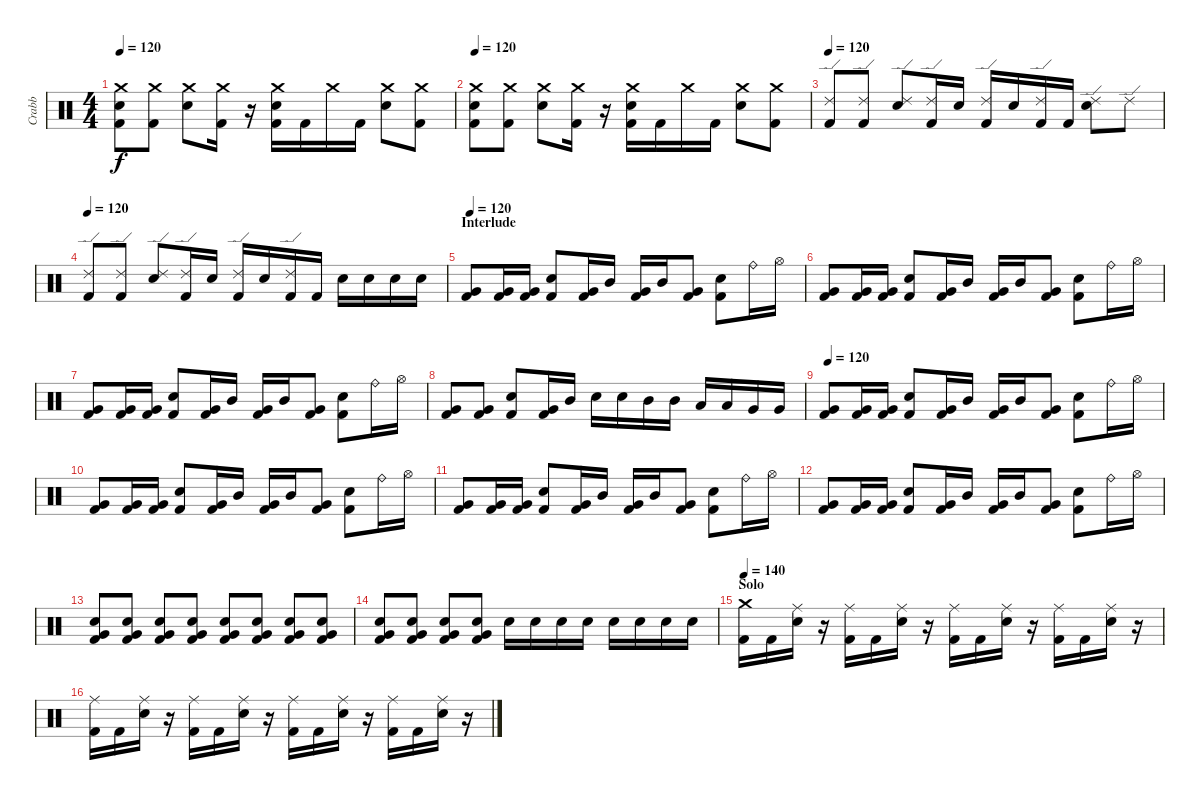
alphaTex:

\track ("Crabb" "Crabb") {instrument percussion}
\staff {score}
\articulation defaults
\ts (4 4)
\tempo 120
\clef neutral
\ks c
("Crash medium (hit)" "Kick (hit) 2" "Electric Snare (hit)").8{dy f} ("Crash medium (hit)" "Kick (hit) 2").8 ("Crash medium (hit)" "Electric Snare (hit)").8 ("Crash medium (hit)" "Kick (hit) 2").16 r.16 ("Crash medium (hit)" "Kick (hit) 2" "Electric Snare (hit)").16 "Kick (hit) 2".16 "Crash medium (hit)".16 "Kick (hit) 2".16 ("Crash medium (hit)" "Electric Snare (hit)").8 ("Crash medium (hit)" "Kick (hit) 2").8 |
\tempo 120
("Crash medium (hit)" "Kick (hit) 2" "Electric Snare (hit)").8 ("Crash medium (hit)" "Kick (hit) 2").8 ("Crash medium (hit)" "Electric Snare (hit)").8 ("Crash medium (hit)" "Kick (hit) 2").16 r.16 ("Crash medium (hit)" "Kick (hit) 2" "Electric Snare (hit)").16 "Kick (hit) 2".16 "Crash medium (hit)".16 "Kick (hit) 2".16 ("Crash medium (hit)" "Electric Snare (hit)").8 ("Crash medium (hit)" "Kick (hit) 2").8 |
\tempo 120
("Ride (edge) 2" "Kick (hit) 2").8 ("Ride (edge) 2" "Kick (hit) 2").8 ("Ride (edge) 2" "Electric Snare (hit)").8 ("Ride (edge) 2" "Kick (hit) 2").16 "Electric Snare (hit)".16 ("Ride (edge) 2" "Kick (hit) 2").16 "Electric Snare (hit)".16 ("Ride (edge) 2" "Kick (hit) 2").16 "Kick (hit) 2".16 ("Ride (edge) 2" "Electric Snare (hit)").8 "Ride (edge) 2".8 |
\tempo 120
("Ride (edge) 2" "Kick (hit) 2").8 ("Ride (edge) 2" "Kick (hit) 2").8 ("Ride (edge) 2" "Electric Snare (hit)").8 ("Ride (edge) 2" "Kick (hit) 2").16 "Electric Snare (hit)".16 ("Ride (edge) 2" "Kick (hit) 2").16 "Electric Snare (hit)".16 ("Ride (edge) 2" "Kick (hit) 2").16 "Kick (hit) 2".16 "Electric Snare (hit)".16 "Electric Snare (hit)".16 "Electric Snare (hit)".16 "Electric Snare (hit)".16 |
\section ("" "Interlude")
\tempo 120
("Very Low Tom (hit)" "Kick (hit) 2").8 ("Very Low Tom (hit)" "Kick (hit) 2").16 ("Very Low Tom (hit)" "Kick (hit) 2").16 ("Electric Snare (hit)" "Kick (hit) 2").8 ("Very Low Tom (hit)" "Kick (hit) 2").16 "Mid Tom (hit)".16 ("Very Low Tom (hit)" "Kick (hit) 2").16 "Mid Tom (hit)".16 ("Very Low Tom (hit)" "Kick (hit) 2").8 ("Electric Snare (hit)" "Kick (hit) 2").8 "Ride (bell)".16 "Hi-Hat (open)".16 |
("Very Low Tom (hit)" "Kick (hit) 2").8 ("Very Low Tom (hit)" "Kick (hit) 2").16 ("Very Low Tom (hit)" "Kick (hit) 2").16 ("Electric Snare (hit)" "Kick (hit) 2").8 ("Very Low Tom (hit)" "Kick (hit) 2").16 "Mid Tom (hit)".16 ("Very Low Tom (hit)" "Kick (hit) 2").16 "Mid Tom (hit)".16 ("Very Low Tom (hit)" "Kick (hit) 2").8 ("Electric Snare (hit)" "Kick (hit) 2").8 "Ride (bell)".16 "Hi-Hat (open)".16 |
("Very Low Tom (hit)" "Kick (hit) 2").8 ("Very Low Tom (hit)" "Kick (hit) 2").16 ("Very Low Tom (hit)" "Kick (hit) 2").16 ("Electric Snare (hit)" "Kick (hit) 2").8 ("Very Low Tom (hit)" "Kick (hit) 2").16 "Mid Tom (hit)".16 ("Very Low Tom (hit)" "Kick (hit) 2").16 "Mid Tom (hit)".16 ("Very Low Tom (hit)" "Kick (hit) 2").8 ("Electric Snare (hit)" "Kick (hit) 2").8 "Ride (bell)".16 "Hi-Hat (open)".16 |
("Very Low Tom (hit)" "Kick (hit) 2").8 ("Very Low Tom (hit)" "Kick (hit) 2").8 ("Electric Snare (hit)" "Kick (hit) 2").8 ("Very Low Tom (hit)" "Kick (hit) 2").16 "Mid Tom (hit)".16 "Electric Snare (hit)".16 "Electric Snare (hit)".16 "Mid Tom (hit)".16 "Mid Tom (hit)".16 "Low Tom (hit)".16 "Low Tom (hit)".16 "Very Low Tom (hit)".16 "Very Low Tom (hit)".16 |
\tempo 120
("Very Low Tom (hit)" "Kick (hit) 2").8 ("Very Low Tom (hit)" "Kick (hit) 2").16 ("Very Low Tom (hit)" "Kick (hit) 2").16 ("Electric Snare (hit)" "Kick (hit) 2").8 ("Very Low Tom (hit)" "Kick (hit) 2").16 "Mid Tom (hit)".16 ("Very Low Tom (hit)" "Kick (hit) 2").16 "Mid Tom (hit)".16 ("Very Low Tom (hit)" "Kick (hit) 2").8 ("Electric Snare (hit)" "Kick (hit) 2").8 "Ride (bell)".16 "Hi-Hat (open)".16 |
("Very Low Tom (hit)" "Kick (hit) 2").8 ("Very Low Tom (hit)" "Kick (hit) 2").16 ("Very Low Tom (hit)" "Kick (hit) 2").16 ("Electric Snare (hit)" "Kick (hit) 2").8 ("Very Low Tom (hit)" "Kick (hit) 2").16 "Mid Tom (hit)".16 ("Very Low Tom (hit)" "Kick (hit) 2").16 "Mid Tom (hit)".16 ("Very Low Tom (hit)" "Kick (hit) 2").8 ("Electric Snare (hit)" "Kick (hit) 2").8 "Ride (bell)".16 "Hi-Hat (open)".16 |
("Very Low Tom (hit)" "Kick (hit) 2").8 ("Very Low Tom (hit)" "Kick (hit) 2").16 ("Very Low Tom (hit)" "Kick (hit) 2").16 ("Electric Snare (hit)" "Kick (hit) 2").8 ("Very Low Tom (hit)" "Kick (hit) 2").16 "Mid Tom (hit)".16 ("Very Low Tom (hit)" "Kick (hit) 2").16 "Mid Tom (hit)".16 ("Very Low Tom (hit)" "Kick (hit) 2").8 ("Electric Snare (hit)" "Kick (hit) 2").8 "Ride (bell)".16 "Hi-Hat (open)".16 |
("Very Low Tom (hit)" "Kick (hit) 2").8 ("Very Low Tom (hit)" "Kick (hit) 2").16 ("Very Low Tom (hit)" "Kick (hit) 2").16 ("Electric Snare (hit)" "Kick (hit) 2").8 ("Very Low Tom (hit)" "Kick (hit) 2").16 "Mid Tom (hit)".16 ("Very Low Tom (hit)" "Kick (hit) 2").16 "Mid Tom (hit)".16 ("Very Low Tom (hit)" "Kick (hit) 2").8 ("Electric Snare (hit)" "Kick (hit) 2").8 "Ride (bell)".16 "Hi-Hat (open)".16 |
("Electric Snare (hit)" "Very Low Tom (hit)" "Kick (hit) 2").8 ("Electric Snare (hit)" "Very Low Tom (hit)" "Kick (hit) 2").8 ("Electric Snare (hit)" "Very Low Tom (hit)" "Kick (hit) 2").8 ("Electric Snare (hit)" "Very Low Tom (hit)" "Kick (hit) 2").8 ("Electric Snare (hit)" "Very Low Tom (hit)" "Kick (hit) 2").8 ("Electric Snare (hit)" "Very Low Tom (hit)" "Kick (hit) 2").8 ("Electric Snare (hit)" "Very Low Tom (hit)" "Kick (hit) 2").8 ("Electric Snare (hit)" "Very Low Tom (hit)" "Kick (hit) 2").8 |
("Electric Snare (hit)" "Very Low Tom (hit)" "Kick (hit) 2").8 ("Electric Snare (hit)" "Very Low Tom (hit)" "Kick (hit) 2").8 ("Electric Snare (hit)" "Very Low Tom (hit)" "Kick (hit) 2").8 ("Electric Snare (hit)" "Very Low Tom (hit)" "Kick (hit) 2").8 "Electric Snare (hit)".16 "Electric Snare (hit)".16 "Electric Snare (hit)".16 "Electric Snare (hit)".16 "Electric Snare (hit)".16 "Electric Snare (hit)".16 "Electric Snare (hit)".16 "Electric Snare (hit)".16 |
\section ("" "Solo")
\tempo 140
("Kick (hit) 2" "Crash medium (hit)").16 "Kick (hit) 2".16 ("Ride (middle)" "Electric Snare (hit)").16 r.16 ("Ride (middle)" "Kick (hit) 2").16 "Kick (hit) 2".16 ("Ride (middle)" "Electric Snare (hit)").16 r.16 ("Ride (middle)" "Kick (hit) 2").16 "Kick (hit) 2".16 ("Ride (middle)" "Electric Snare (hit)").16 r.16 ("Ride (middle)" "Kick (hit) 2").16 "Kick (hit) 2".16 ("Ride (middle)" "Electric Snare (hit)").16 r.16 |
("Ride (middle)" "Kick (hit) 2").16 "Kick (hit) 2".16 ("Ride (middle)" "Electric Snare (hit)").16 r.16 ("Ride (middle)" "Kick (hit) 2").16 "Kick (hit) 2".16 ("Ride (middle)" "Electric Snare (hit)").16 r.16 ("Ride (middle)" "Kick (hit) 2").16 "Kick (hit) 2".16 ("Ride (middle)" "Electric Snare (hit)").16 r.16 ("Ride (middle)" "Kick (hit) 2").16 "Kick (hit) 2".16 ("Ride (middle)" "Electric Snare (hit)").16 r.16
